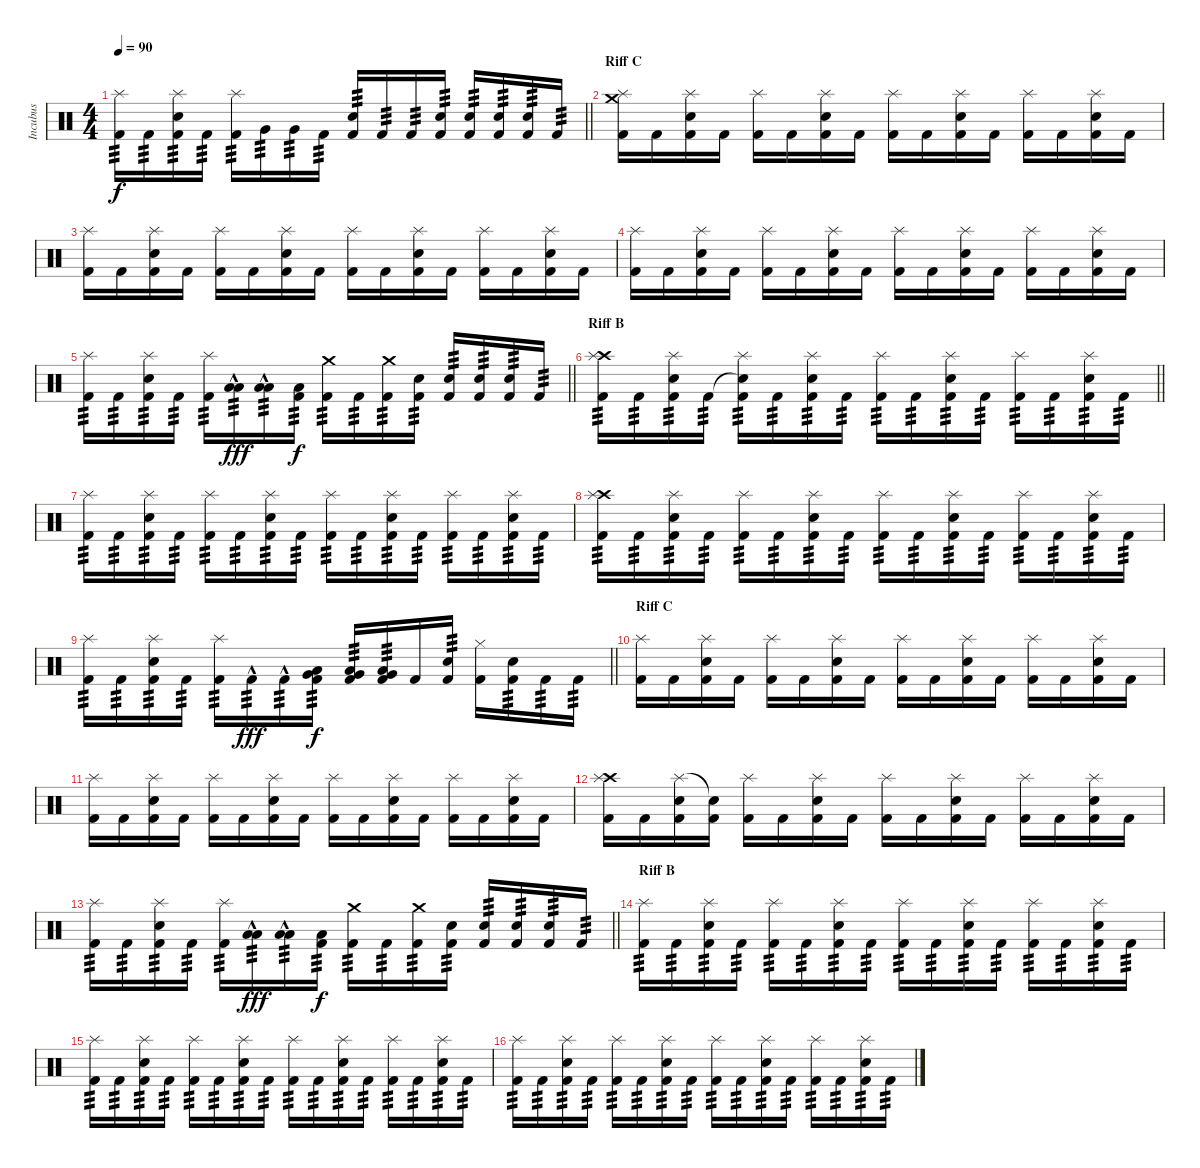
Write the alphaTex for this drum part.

\track ("Incubus" "Incubus") {instrument percussion}
\staff {score}
\articulation defaults
\ts (4 4)
\tempo 90
\clef neutral
\barLineRight lightlight
\ks c
("Splash (hit)" "Kick (hit) 2").16{tp 3 dy f} "Kick (hit) 2".16{tp 3} ("Splash (hit)" "Snare (hit) 2" "Kick (hit) 2").16{tp 3} "Kick (hit) 2".16{tp 3} ("Splash (hit)" "Kick (hit) 2").16{tp 3} "Very Low Tom (hit)".16{tp 3} "Very Low Tom (hit)".16{tp 3} "Kick (hit) 2".16{tp 3} ("Snare (hit) 2" "Kick (hit) 2").16{tp 3} "Kick (hit) 2".16{tp 3} "Kick (hit) 2".16{tp 3} ("Snare (hit) 2" "Kick (hit) 2").16{tp 3} ("Snare (hit) 2" "Kick (hit) 2").16{tp 3} ("Snare (hit) 2" "Kick (hit) 2").16{tp 3} ("Snare (hit) 2" "Kick (hit) 2").16{tp 3} "Kick (hit) 2".16{tp 3} |
\section ("" "Riff C")
("Crash medium (hit)" "Splash (hit)" "Kick (hit) 2").16 "Kick (hit) 2".16 ("Splash (hit)" "Snare (hit) 2" "Kick (hit) 2").16 "Kick (hit) 2".16 ("Splash (hit)" "Kick (hit) 2").16 "Kick (hit) 2".16 ("Splash (hit)" "Snare (hit) 2" "Kick (hit) 2").16 "Kick (hit) 2".16 ("Splash (hit)" "Kick (hit) 2").16 "Kick (hit) 2".16 ("Splash (hit)" "Snare (hit) 2" "Kick (hit) 2").16 "Kick (hit) 2".16 ("Splash (hit)" "Kick (hit) 2").16 "Kick (hit) 2".16 ("Splash (hit)" "Snare (hit) 2" "Kick (hit) 2").16 "Kick (hit) 2".16 |
("Splash (hit)" "Kick (hit) 2").16 "Kick (hit) 2".16 ("Splash (hit)" "Snare (hit) 2" "Kick (hit) 2").16 "Kick (hit) 2".16 ("Splash (hit)" "Kick (hit) 2").16 "Kick (hit) 2".16 ("Splash (hit)" "Snare (hit) 2" "Kick (hit) 2").16 "Kick (hit) 2".16 ("Splash (hit)" "Kick (hit) 2").16 "Kick (hit) 2".16 ("Splash (hit)" "Snare (hit) 2" "Kick (hit) 2").16 "Kick (hit) 2".16 ("Splash (hit)" "Kick (hit) 2").16 "Kick (hit) 2".16 ("Splash (hit)" "Snare (hit) 2" "Kick (hit) 2").16 "Kick (hit) 2".16 |
("Splash (hit)" "Kick (hit) 2").16 "Kick (hit) 2".16 ("Splash (hit)" "Snare (hit) 2" "Kick (hit) 2").16 "Kick (hit) 2".16 ("Splash (hit)" "Kick (hit) 2").16 "Kick (hit) 2".16 ("Splash (hit)" "Snare (hit) 2" "Kick (hit) 2").16 "Kick (hit) 2".16 ("Splash (hit)" "Kick (hit) 2").16 "Kick (hit) 2".16 ("Splash (hit)" "Snare (hit) 2" "Kick (hit) 2").16 "Kick (hit) 2".16 ("Splash (hit)" "Kick (hit) 2").16 "Kick (hit) 2".16 ("Splash (hit)" "Snare (hit) 2" "Kick (hit) 2").16 "Kick (hit) 2".16 |
\barLineRight lightlight
("Splash (hit)" "Kick (hit) 2").16{tp 3} "Kick (hit) 2".16{tp 3} ("Splash (hit)" "Snare (hit) 2" "Kick (hit) 2").16{tp 3} "Kick (hit) 2".16{tp 3} ("Splash (hit)" "Kick (hit) 2").16{tp 3} ("Low Floor Tom (hit)" "Low Floor Tom (hit)"{hac}).16{tp 3 dy fff} ("Low Floor Tom (hit)" "Low Floor Tom (hit)"{hac}).16{tp 3} ("Low Floor Tom (hit)" "Kick (hit) 2").16{tp 3 dy f} ("Crash medium (hit)" "Kick (hit) 2").16{tp 3} "Kick (hit) 2".16{tp 3} ("Crash medium (hit)" "Kick (hit) 2").16{tp 3} ("Snare (hit) 2" "Kick (hit) 2").16{tp 3} ("Snare (hit) 2" "Kick (hit) 2").16{tp 3} ("Snare (hit) 2" "Kick (hit) 2").16{tp 3} ("Snare (hit) 2" "Kick (hit) 2").16{tp 3} "Kick (hit) 2".16{tp 3} |
\section ("" "Riff B")
\barLineRight lightlight
("Crash high (hit)" "Splash (hit)" "Kick (hit) 2").16{tp 3} "Kick (hit) 2".16{tp 3} ("Splash (hit)" "Snare (hit) 2" "Kick (hit) 2").16{tp 3} "Kick (hit) 2".16{tp 3} ("Snare (hit)"{t} "Splash (hit)" "Kick (hit) 2").16{tp 3} "Kick (hit) 2".16{tp 3} ("Splash (hit)" "Snare (hit) 2" "Kick (hit) 2").16{tp 3} "Kick (hit) 2".16{tp 3} ("Splash (hit)" "Kick (hit) 2").16{tp 3} "Kick (hit) 2".16{tp 3} ("Splash (hit)" "Snare (hit) 2" "Kick (hit) 2").16{tp 3} "Kick (hit) 2".16{tp 3} ("Splash (hit)" "Kick (hit) 2").16{tp 3} "Kick (hit) 2".16{tp 3} ("Splash (hit)" "Snare (hit) 2" "Kick (hit) 2").16{tp 3} "Kick (hit) 2".16{tp 3} |
\section ("" "")
("Splash (hit)" "Kick (hit) 2").16{tp 3} "Kick (hit) 2".16{tp 3} ("Splash (hit)" "Snare (hit) 2" "Kick (hit) 2").16{tp 3} "Kick (hit) 2".16{tp 3} ("Splash (hit)" "Kick (hit) 2").16{tp 3} "Kick (hit) 2".16{tp 3} ("Splash (hit)" "Snare (hit) 2" "Kick (hit) 2").16{tp 3} "Kick (hit) 2".16{tp 3} ("Splash (hit)" "Kick (hit) 2").16{tp 3} "Kick (hit) 2".16{tp 3} ("Splash (hit)" "Snare (hit) 2" "Kick (hit) 2").16{tp 3} "Kick (hit) 2".16{tp 3} ("Splash (hit)" "Kick (hit) 2").16{tp 3} "Kick (hit) 2".16{tp 3} ("Splash (hit)" "Snare (hit) 2" "Kick (hit) 2").16{tp 3} "Kick (hit) 2".16{tp 3} |
("Crash high (hit)" "Splash (hit)" "Kick (hit) 2").16{tp 3} "Kick (hit) 2".16{tp 3} ("Splash (hit)" "Snare (hit) 2" "Kick (hit) 2").16{tp 3} "Kick (hit) 2".16{tp 3} ("Splash (hit)" "Kick (hit) 2").16{tp 3} "Kick (hit) 2".16{tp 3} ("Splash (hit)" "Snare (hit) 2" "Kick (hit) 2").16{tp 3} "Kick (hit) 2".16{tp 3} ("Splash (hit)" "Kick (hit) 2").16{tp 3} "Kick (hit) 2".16{tp 3} ("Splash (hit)" "Snare (hit) 2" "Kick (hit) 2").16{tp 3} "Kick (hit) 2".16{tp 3} ("Splash (hit)" "Kick (hit) 2").16{tp 3} "Kick (hit) 2".16{tp 3} ("Splash (hit)" "Snare (hit) 2" "Kick (hit) 2").16{tp 3} "Kick (hit) 2".16{tp 3} |
\barLineRight lightlight
("Splash (hit)" "Kick (hit) 2").16{tp 3} "Kick (hit) 2".16{tp 3} ("Splash (hit)" "Snare (hit) 2" "Kick (hit) 2").16{tp 3} "Kick (hit) 2".16{tp 3} ("Splash (hit)" "Kick (hit) 2").16{tp 3} "Kick (hit) 2"{hac}.16{tp 3 dy fff} "Kick (hit) 2"{hac}.16{tp 3} ("Low Floor Tom (hit)" "Very Low Tom (hit)" "Kick (hit) 2").16{tp 3 dy f} ("Low Floor Tom (hit)" "Very Low Tom (hit)" "Kick (hit) 2").16{tp 3} ("Low Floor Tom (hit)" "Very Low Tom (hit)" "Kick (hit) 2").16{tp 3} "Kick (hit) 2".16 ("Snare (hit) 2" "Kick (hit) 2").16{tp 3} ("Hi-Hat (closed)" "Kick (hit) 2").16 ("Snare (hit) 2" "Kick (hit) 2").16{tp 3} "Kick (hit) 2".16{tp 3} "Kick (hit) 2".16{tp 3} |
\section ("" "Riff C")
("Splash (hit)" "Kick (hit) 2").16 "Kick (hit) 2".16 ("Splash (hit)" "Snare (hit) 2" "Kick (hit) 2").16 "Kick (hit) 2".16 ("Splash (hit)" "Kick (hit) 2").16 "Kick (hit) 2".16 ("Splash (hit)" "Snare (hit) 2" "Kick (hit) 2").16 "Kick (hit) 2".16 ("Splash (hit)" "Kick (hit) 2").16 "Kick (hit) 2".16 ("Splash (hit)" "Snare (hit) 2" "Kick (hit) 2").16 "Kick (hit) 2".16 ("Splash (hit)" "Kick (hit) 2").16 "Kick (hit) 2".16 ("Splash (hit)" "Snare (hit) 2" "Kick (hit) 2").16 "Kick (hit) 2".16 |
("Splash (hit)" "Kick (hit) 2").16 "Kick (hit) 2".16 ("Splash (hit)" "Snare (hit) 2" "Kick (hit) 2").16 "Kick (hit) 2".16 ("Splash (hit)" "Kick (hit) 2").16 "Kick (hit) 2".16 ("Splash (hit)" "Snare (hit) 2" "Kick (hit) 2").16 "Kick (hit) 2".16 ("Splash (hit)" "Kick (hit) 2").16 "Kick (hit) 2".16 ("Splash (hit)" "Snare (hit) 2" "Kick (hit) 2").16 "Kick (hit) 2".16 ("Splash (hit)" "Kick (hit) 2").16 "Kick (hit) 2".16 ("Splash (hit)" "Snare (hit) 2" "Kick (hit) 2").16 "Kick (hit) 2".16 |
("Crash high (hit)" "Splash (hit)" "Kick (hit) 2").16 "Kick (hit) 2".16 ("Splash (hit)" "Snare (hit) 2" "Kick (hit) 2").16 ("Snare (hit)"{t} "Kick (hit) 2").16 ("Splash (hit)" "Kick (hit) 2").16 "Kick (hit) 2".16 ("Splash (hit)" "Snare (hit) 2" "Kick (hit) 2").16 "Kick (hit) 2".16 ("Splash (hit)" "Kick (hit) 2").16 "Kick (hit) 2".16 ("Splash (hit)" "Snare (hit) 2" "Kick (hit) 2").16 "Kick (hit) 2".16 ("Splash (hit)" "Kick (hit) 2").16 "Kick (hit) 2".16 ("Splash (hit)" "Snare (hit) 2" "Kick (hit) 2").16 "Kick (hit) 2".16 |
\barLineRight lightlight
("Splash (hit)" "Kick (hit) 2").16{tp 3} "Kick (hit) 2".16{tp 3} ("Splash (hit)" "Snare (hit) 2" "Kick (hit) 2").16{tp 3} "Kick (hit) 2".16{tp 3} ("Splash (hit)" "Kick (hit) 2").16{tp 3} ("Low Floor Tom (hit)" "Low Floor Tom (hit)"{hac}).16{tp 3 dy fff} ("Low Floor Tom (hit)" "Low Floor Tom (hit)"{hac}).16{tp 3} ("Low Floor Tom (hit)" "Kick (hit) 2").16{tp 3 dy f} ("Crash medium (hit)" "Kick (hit) 2").16{tp 3} "Kick (hit) 2".16{tp 3} ("Crash medium (hit)" "Kick (hit) 2").16{tp 3} ("Snare (hit) 2" "Kick (hit) 2").16{tp 3} ("Snare (hit) 2" "Kick (hit) 2").16{tp 3} ("Snare (hit) 2" "Kick (hit) 2").16{tp 3} ("Snare (hit) 2" "Kick (hit) 2").16{tp 3} "Kick (hit) 2".16{tp 3} |
\section ("" "Riff B")
("Splash (hit)" "Kick (hit) 2").16{tp 3} "Kick (hit) 2".16{tp 3} ("Splash (hit)" "Snare (hit) 2" "Kick (hit) 2").16{tp 3} "Kick (hit) 2".16{tp 3} ("Splash (hit)" "Kick (hit) 2").16{tp 3} "Kick (hit) 2".16{tp 3} ("Splash (hit)" "Snare (hit) 2" "Kick (hit) 2").16{tp 3} "Kick (hit) 2".16{tp 3} ("Splash (hit)" "Kick (hit) 2").16{tp 3} "Kick (hit) 2".16{tp 3} ("Splash (hit)" "Snare (hit) 2" "Kick (hit) 2").16{tp 3} "Kick (hit) 2".16{tp 3} ("Splash (hit)" "Kick (hit) 2").16{tp 3} "Kick (hit) 2".16{tp 3} ("Splash (hit)" "Snare (hit) 2" "Kick (hit) 2").16{tp 3} "Kick (hit) 2".16{tp 3} |
("Splash (hit)" "Kick (hit) 2").16{tp 3} "Kick (hit) 2".16{tp 3} ("Splash (hit)" "Snare (hit) 2" "Kick (hit) 2").16{tp 3} "Kick (hit) 2".16{tp 3} ("Splash (hit)" "Kick (hit) 2").16{tp 3} "Kick (hit) 2".16{tp 3} ("Splash (hit)" "Snare (hit) 2" "Kick (hit) 2").16{tp 3} "Kick (hit) 2".16{tp 3} ("Splash (hit)" "Kick (hit) 2").16{tp 3} "Kick (hit) 2".16{tp 3} ("Splash (hit)" "Snare (hit) 2" "Kick (hit) 2").16{tp 3} "Kick (hit) 2".16{tp 3} ("Splash (hit)" "Kick (hit) 2").16{tp 3} "Kick (hit) 2".16{tp 3} ("Splash (hit)" "Snare (hit) 2" "Kick (hit) 2").16{tp 3} "Kick (hit) 2".16{tp 3} |
("Splash (hit)" "Kick (hit) 2").16{tp 3} "Kick (hit) 2".16{tp 3} ("Splash (hit)" "Snare (hit) 2" "Kick (hit) 2").16{tp 3} "Kick (hit) 2".16{tp 3} ("Splash (hit)" "Kick (hit) 2").16{tp 3} "Kick (hit) 2".16{tp 3} ("Splash (hit)" "Snare (hit) 2" "Kick (hit) 2").16{tp 3} "Kick (hit) 2".16{tp 3} ("Splash (hit)" "Kick (hit) 2").16{tp 3} "Kick (hit) 2".16{tp 3} ("Splash (hit)" "Snare (hit) 2" "Kick (hit) 2").16{tp 3} "Kick (hit) 2".16{tp 3} ("Splash (hit)" "Kick (hit) 2").16{tp 3} "Kick (hit) 2".16{tp 3} ("Splash (hit)" "Snare (hit) 2" "Kick (hit) 2").16{tp 3} "Kick (hit) 2".16{tp 3}
